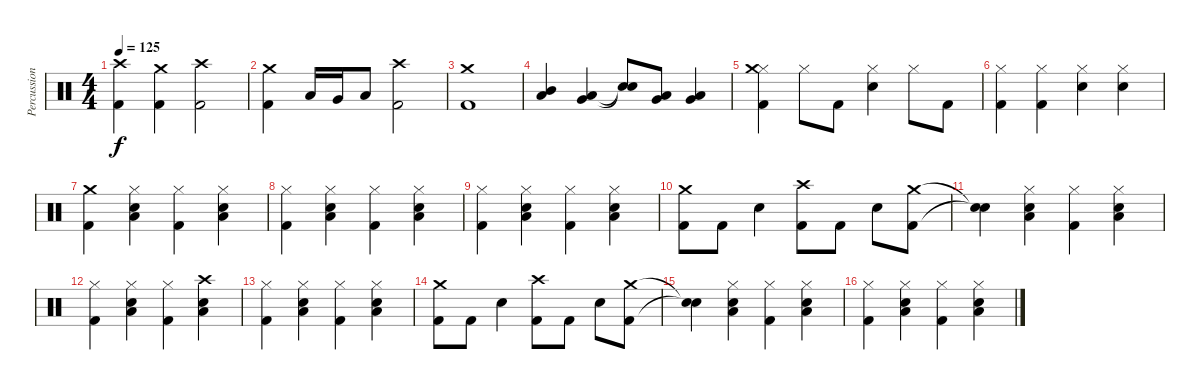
\track ("Percussion" "Percussion") {instrument percussion}
\staff {score}
\articulation defaults
\ts (4 4)
\tempo 125
\clef neutral
\ks c
("Crash high (hit)" "Kick (hit) 2").4{dy f} ("Crash medium (hit)" "Kick (hit) 2").4 ("Crash high (hit)" "Kick (hit) 2").2 |
("Crash medium (hit)" "Kick (hit) 2").4 "Low Tom (hit)".16 "Very Low Tom (hit)".16 "Low Floor Tom (hit)".8 ("Crash high (hit)" "Kick (hit) 2").2 |
("Crash medium (hit)" "Kick (hit) 2").1 |
("Mid Tom (hit)" "Low Tom (hit)").4 ("Low Tom (hit)" "Very Low Tom (hit)").4 ("Snare (hit)"{t} "Snare (hit)"{t}).8 ("Low Tom (hit)" "Very Low Tom (hit)").8 ("Very Low Tom (hit)" "Low Floor Tom (hit)").4 |
("Hi-Hat (closed)" "Crash medium (hit)" "Kick (hit) 2").4 "Hi-Hat (closed)".8 "Kick (hit) 2".8 ("Hi-Hat (closed)" "Metronome (bell)").4 "Hi-Hat (closed)".8 "Kick (hit) 2".8 |
("Hi-Hat (closed)" "Kick (hit) 2").4 ("Hi-Hat (closed)" "Kick (hit) 2").4 ("Hi-Hat (closed)" "Metronome (bell)").4 ("Hi-Hat (closed)" "Metronome (bell)").4 |
("Crash medium (hit)" "Kick (hit) 2").4 ("Hi-Hat (closed)" "Low Floor Tom (hit)" "Metronome (bell)").4 ("Hi-Hat (closed)" "Kick (hit) 2").4 ("Hi-Hat (closed)" "Low Floor Tom (hit)" "Metronome (bell)").4 |
("Hi-Hat (closed)" "Kick (hit) 2").4 ("Hi-Hat (closed)" "Low Floor Tom (hit)" "Metronome (bell)").4 ("Hi-Hat (closed)" "Kick (hit) 2").4 ("Hi-Hat (closed)" "Low Floor Tom (hit)" "Metronome (bell)").4 |
("Hi-Hat (closed)" "Kick (hit) 2").4 ("Hi-Hat (closed)" "Low Floor Tom (hit)" "Metronome (bell)").4 ("Hi-Hat (closed)" "Kick (hit) 2").4 ("Hi-Hat (closed)" "Low Floor Tom (hit)" "Metronome (bell)").4 |
("Crash medium (hit)" "Kick (hit) 2").8 "Kick (hit) 2".8 "Metronome (bell)".4 ("Crash high (hit)" "Kick (hit) 2").8 "Kick (hit) 2".8 "Metronome (bell)".8 ("Crash medium (hit)" "Kick (hit) 2").8 |
("Snare (hit)"{t} "Snare (hit)"{t}).4 ("Hi-Hat (closed)" "Low Floor Tom (hit)" "Metronome (bell)").4 ("Hi-Hat (closed)" "Kick (hit) 2").4 ("Hi-Hat (closed)" "Low Floor Tom (hit)" "Metronome (bell)").4 |
("Hi-Hat (closed)" "Kick (hit) 2").4 ("Hi-Hat (closed)" "Low Floor Tom (hit)" "Metronome (bell)").4 ("Hi-Hat (closed)" "Kick (hit) 2").4 ("Crash high (hit)" "Low Floor Tom (hit)" "Metronome (bell)").4 |
("Hi-Hat (closed)" "Kick (hit) 2").4 ("Hi-Hat (closed)" "Low Floor Tom (hit)" "Metronome (bell)").4 ("Hi-Hat (closed)" "Kick (hit) 2").4 ("Hi-Hat (closed)" "Low Floor Tom (hit)" "Metronome (bell)").4 |
("Crash medium (hit)" "Kick (hit) 2").8 "Kick (hit) 2".8 "Metronome (bell)".4 ("Crash high (hit)" "Kick (hit) 2").8 "Kick (hit) 2".8 "Metronome (bell)".8 ("Crash medium (hit)" "Kick (hit) 2").8 |
("Snare (hit)"{t} "Snare (hit)"{t}).4 ("Hi-Hat (closed)" "Low Floor Tom (hit)" "Metronome (bell)").4 ("Hi-Hat (closed)" "Kick (hit) 2").4 ("Hi-Hat (closed)" "Low Floor Tom (hit)" "Metronome (bell)").4 |
("Hi-Hat (closed)" "Kick (hit) 2").4 ("Hi-Hat (closed)" "Low Floor Tom (hit)" "Metronome (bell)").4 ("Hi-Hat (closed)" "Kick (hit) 2").4 ("Hi-Hat (closed)" "Low Floor Tom (hit)" "Metronome (bell)").4
